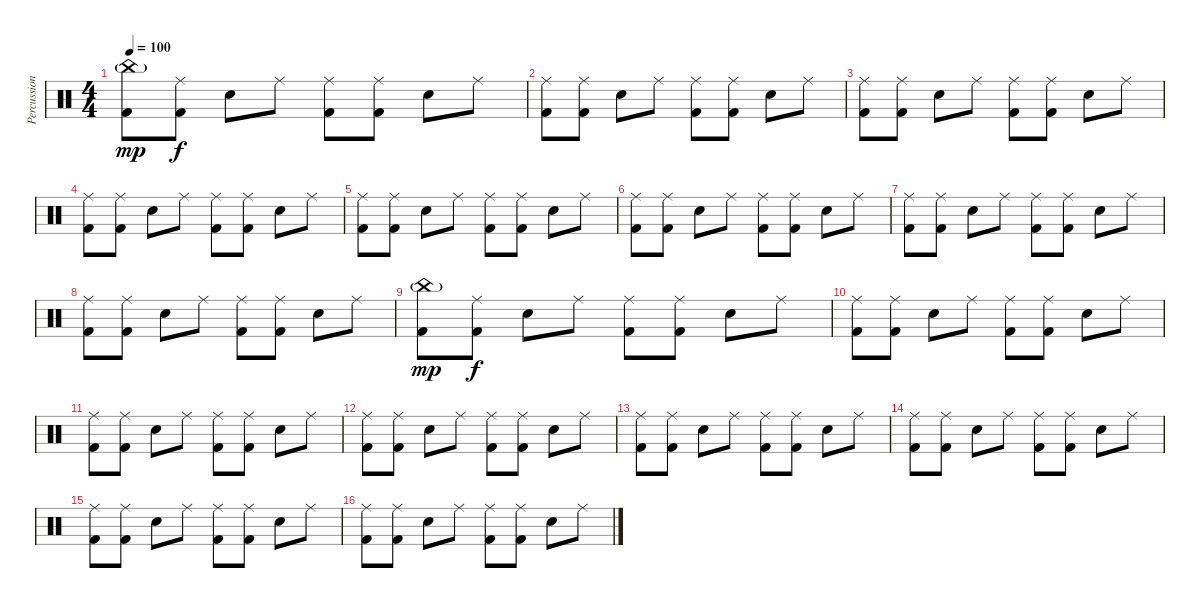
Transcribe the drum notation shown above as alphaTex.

\track ("Percussion" "Percussion") {instrument percussion}
\staff {score}
\articulation defaults
\ts (4 4)
\tempo 100
\clef neutral
\ks c
("China (hit)"{g} "Kick (hit) 2").8{dy mp} ("Ride (middle)" "Kick (hit) 2").8{dy f} "Electric Snare (hit)".8 "Ride (middle)".8 ("Ride (middle)" "Kick (hit) 2").8 ("Ride (middle)" "Kick (hit) 2").8 "Electric Snare (hit)".8 "Ride (middle)".8 |
("Ride (middle)" "Kick (hit) 2").8 ("Ride (middle)" "Kick (hit) 2").8 "Electric Snare (hit)".8 "Ride (middle)".8 ("Ride (middle)" "Kick (hit) 2").8 ("Ride (middle)" "Kick (hit) 2").8 "Electric Snare (hit)".8 "Ride (middle)".8 |
("Ride (middle)" "Kick (hit) 2").8 ("Ride (middle)" "Kick (hit) 2").8 "Electric Snare (hit)".8 "Ride (middle)".8 ("Ride (middle)" "Kick (hit) 2").8 ("Ride (middle)" "Kick (hit) 2").8 "Electric Snare (hit)".8 "Ride (middle)".8 |
("Ride (middle)" "Kick (hit) 2").8 ("Ride (middle)" "Kick (hit) 2").8 "Electric Snare (hit)".8 "Ride (middle)".8 ("Ride (middle)" "Kick (hit) 2").8 ("Ride (middle)" "Kick (hit) 2").8 "Electric Snare (hit)".8 "Ride (middle)".8 |
("Ride (middle)" "Kick (hit) 2").8 ("Ride (middle)" "Kick (hit) 2").8 "Electric Snare (hit)".8 "Ride (middle)".8 ("Ride (middle)" "Kick (hit) 2").8 ("Ride (middle)" "Kick (hit) 2").8 "Electric Snare (hit)".8 "Ride (middle)".8 |
("Ride (middle)" "Kick (hit) 2").8 ("Ride (middle)" "Kick (hit) 2").8 "Electric Snare (hit)".8 "Ride (middle)".8 ("Ride (middle)" "Kick (hit) 2").8 ("Ride (middle)" "Kick (hit) 2").8 "Electric Snare (hit)".8 "Ride (middle)".8 |
("Ride (middle)" "Kick (hit) 2").8 ("Ride (middle)" "Kick (hit) 2").8 "Electric Snare (hit)".8 "Ride (middle)".8 ("Ride (middle)" "Kick (hit) 2").8 ("Ride (middle)" "Kick (hit) 2").8 "Electric Snare (hit)".8 "Ride (middle)".8 |
("Ride (middle)" "Kick (hit) 2").8 ("Ride (middle)" "Kick (hit) 2").8 "Electric Snare (hit)".8 "Ride (middle)".8 ("Ride (middle)" "Kick (hit) 2").8 ("Ride (middle)" "Kick (hit) 2").8 "Electric Snare (hit)".8 "Ride (middle)".8 |
("China (hit)"{g} "Kick (hit) 2").8{dy mp} ("Ride (middle)" "Kick (hit) 2").8{dy f} "Electric Snare (hit)".8 "Ride (middle)".8 ("Ride (middle)" "Kick (hit) 2").8 ("Ride (middle)" "Kick (hit) 2").8 "Electric Snare (hit)".8 "Ride (middle)".8 |
("Ride (middle)" "Kick (hit) 2").8 ("Ride (middle)" "Kick (hit) 2").8 "Electric Snare (hit)".8 "Ride (middle)".8 ("Ride (middle)" "Kick (hit) 2").8 ("Ride (middle)" "Kick (hit) 2").8 "Electric Snare (hit)".8 "Ride (middle)".8 |
("Ride (middle)" "Kick (hit) 2").8 ("Ride (middle)" "Kick (hit) 2").8 "Electric Snare (hit)".8 "Ride (middle)".8 ("Ride (middle)" "Kick (hit) 2").8 ("Ride (middle)" "Kick (hit) 2").8 "Electric Snare (hit)".8 "Ride (middle)".8 |
("Ride (middle)" "Kick (hit) 2").8 ("Ride (middle)" "Kick (hit) 2").8 "Electric Snare (hit)".8 "Ride (middle)".8 ("Ride (middle)" "Kick (hit) 2").8 ("Ride (middle)" "Kick (hit) 2").8 "Electric Snare (hit)".8 "Ride (middle)".8 |
("Ride (middle)" "Kick (hit) 2").8 ("Ride (middle)" "Kick (hit) 2").8 "Electric Snare (hit)".8 "Ride (middle)".8 ("Ride (middle)" "Kick (hit) 2").8 ("Ride (middle)" "Kick (hit) 2").8 "Electric Snare (hit)".8 "Ride (middle)".8 |
("Ride (middle)" "Kick (hit) 2").8 ("Ride (middle)" "Kick (hit) 2").8 "Electric Snare (hit)".8 "Ride (middle)".8 ("Ride (middle)" "Kick (hit) 2").8 ("Ride (middle)" "Kick (hit) 2").8 "Electric Snare (hit)".8 "Ride (middle)".8 |
("Ride (middle)" "Kick (hit) 2").8 ("Ride (middle)" "Kick (hit) 2").8 "Electric Snare (hit)".8 "Ride (middle)".8 ("Ride (middle)" "Kick (hit) 2").8 ("Ride (middle)" "Kick (hit) 2").8 "Electric Snare (hit)".8 "Ride (middle)".8 |
("Ride (middle)" "Kick (hit) 2").8 ("Ride (middle)" "Kick (hit) 2").8 "Electric Snare (hit)".8 "Ride (middle)".8 ("Ride (middle)" "Kick (hit) 2").8 ("Ride (middle)" "Kick (hit) 2").8 "Electric Snare (hit)".8 "Ride (middle)".8
